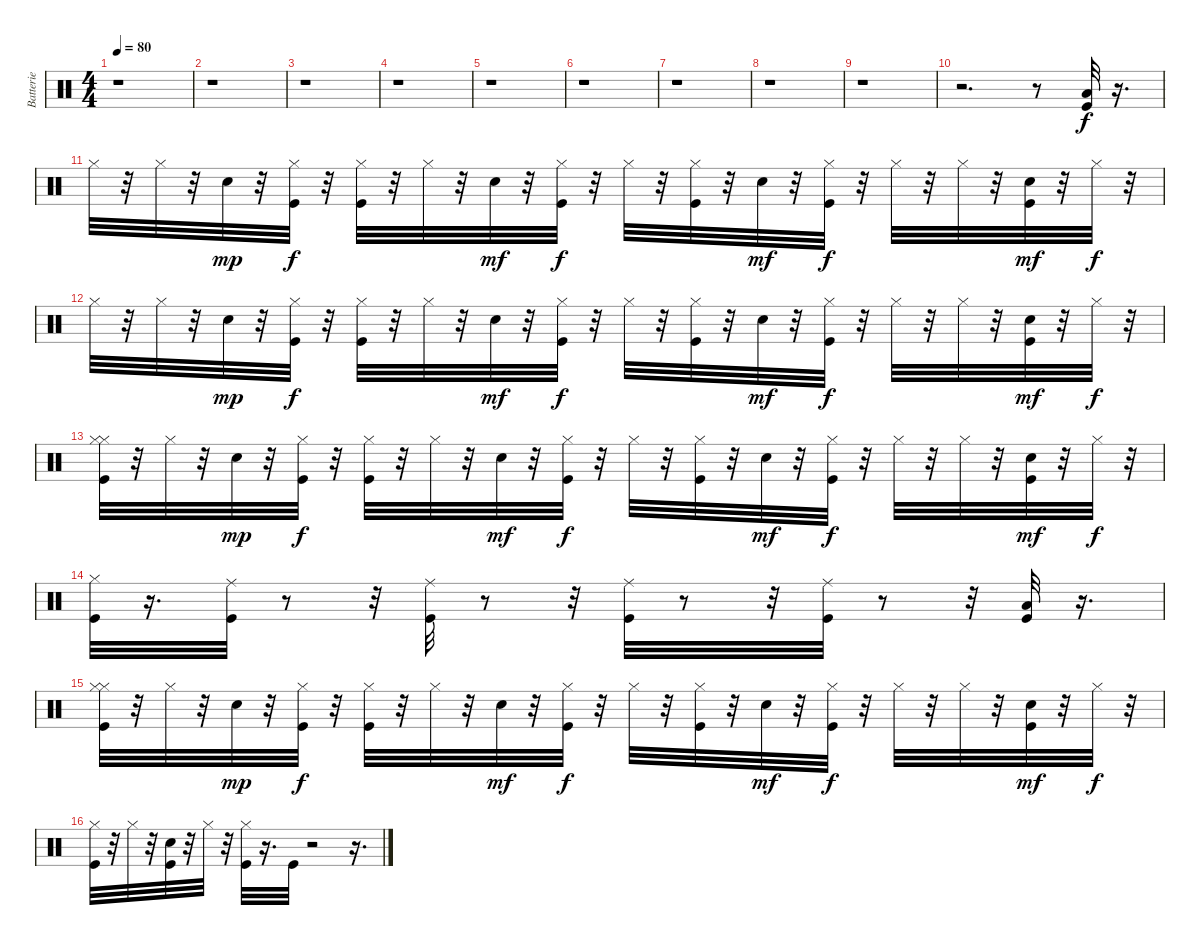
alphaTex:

\track ("Batterie" "Batterie") {instrument percussion}
\staff {score}
\articulation defaults
\ts (4 4)
\tempo 80
\clef neutral
\ks c
r.1{dy f} |
r.1 |
r.1 |
r.1 |
r.1 |
r.1 |
r.1 |
r.1 |
r.1 |
r.2{d} r.8 ("Kick (hit)" "Low Floor Tom (hit)").32 r.16{d} |
"Hi-Hat (closed)".32 r.32 "Hi-Hat (closed)".32 r.32 "Electric Snare (hit)".32{dy mp} r.32 ("Hi-Hat (closed)" "Kick (hit)").32{dy f} r.32 ("Hi-Hat (closed)" "Kick (hit)").32 r.32 "Hi-Hat (closed)".32 r.32 "Electric Snare (hit)".32{dy mf} r.32 ("Hi-Hat (closed)" "Kick (hit)").32{dy f} r.32 "Hi-Hat (closed)".32 r.32 ("Kick (hit)" "Hi-Hat (closed)").32 r.32 "Electric Snare (hit)".32{dy mf} r.32 ("Kick (hit)" "Hi-Hat (closed)").32{dy f} r.32 "Hi-Hat (closed)".32 r.32 "Hi-Hat (closed)".32 r.32 ("Electric Snare (hit)" "Kick (hit)").32{dy mf} r.32 "Hi-Hat (closed)".32{dy f} r.32 |
"Hi-Hat (closed)".32 r.32 "Hi-Hat (closed)".32 r.32 "Electric Snare (hit)".32{dy mp} r.32 ("Kick (hit)" "Hi-Hat (closed)").32{dy f} r.32 ("Hi-Hat (closed)" "Kick (hit)").32 r.32 "Hi-Hat (closed)".32 r.32 "Electric Snare (hit)".32{dy mf} r.32 ("Kick (hit)" "Hi-Hat (closed)").32{dy f} r.32 "Hi-Hat (closed)".32 r.32 ("Hi-Hat (closed)" "Kick (hit)").32 r.32 "Electric Snare (hit)".32{dy mf} r.32 ("Hi-Hat (closed)" "Kick (hit)").32{dy f} r.32 "Hi-Hat (closed)".32 r.32 "Hi-Hat (closed)".32 r.32 ("Kick (hit)" "Electric Snare (hit)").32{dy mf} r.32 "Hi-Hat (closed)".32{dy f} r.32 |
("Hi-Hat (closed)" "Hi-Hat (closed)" "Kick (hit)").32 r.32 "Hi-Hat (closed)".32 r.32 "Electric Snare (hit)".32{dy mp} r.32 ("Hi-Hat (closed)" "Kick (hit)").32{dy f} r.32 ("Kick (hit)" "Hi-Hat (closed)").32 r.32 "Hi-Hat (closed)".32 r.32 "Electric Snare (hit)".32{dy mf} r.32 ("Kick (hit)" "Hi-Hat (closed)").32{dy f} r.32 "Hi-Hat (closed)".32 r.32 ("Hi-Hat (closed)" "Kick (hit)").32 r.32 "Electric Snare (hit)".32{dy mf} r.32 ("Hi-Hat (closed)" "Kick (hit)").32{dy f} r.32 "Hi-Hat (closed)".32 r.32 "Hi-Hat (closed)".32 r.32 ("Kick (hit)" "Electric Snare (hit)").32{dy mf} r.32 "Hi-Hat (closed)".32{dy f} r.32 |
("Kick (hit)" "Hi-Hat (closed)").32 r.16{d} ("Kick (hit)" "Ride (middle)").32 r.8 r.32 ("Ride (middle)" "Kick (hit)").32 r.8 r.32 ("Ride (middle)" "Kick (hit)").32 r.8 r.32 ("Kick (hit)" "Ride (middle)").32 r.8 r.32 ("Low Floor Tom (hit)" "Kick (hit)").32 r.16{d} |
("Hi-Hat (closed)" "Kick (hit)" "Hi-Hat (closed)").32 r.32 "Hi-Hat (closed)".32 r.32 "Electric Snare (hit)".32{dy mp} r.32 ("Hi-Hat (closed)" "Kick (hit)").32{dy f} r.32 ("Kick (hit)" "Hi-Hat (closed)").32 r.32 "Hi-Hat (closed)".32 r.32 "Electric Snare (hit)".32{dy mf} r.32 ("Kick (hit)" "Hi-Hat (closed)").32{dy f} r.32 "Hi-Hat (closed)".32 r.32 ("Kick (hit)" "Hi-Hat (closed)").32 r.32 "Electric Snare (hit)".32{dy mf} r.32 ("Hi-Hat (closed)" "Kick (hit)").32{dy f} r.32 "Hi-Hat (closed)".32 r.32 "Hi-Hat (closed)".32 r.32 ("Electric Snare (hit)" "Kick (hit)").32{dy mf} r.32 "Hi-Hat (closed)".32{dy f} r.32 |
("Hi-Hat (closed)" "Kick (hit)").32 r.32 "Hi-Hat (closed)".32 r.32 ("Kick (hit)" "Electric Snare (hit)").32 r.32 "Hi-Hat (closed)".32 r.32 ("Kick (hit)" "Hi-Hat (closed)").32 r.16{d} "Kick (hit)".32 r.2 r.16{d}
